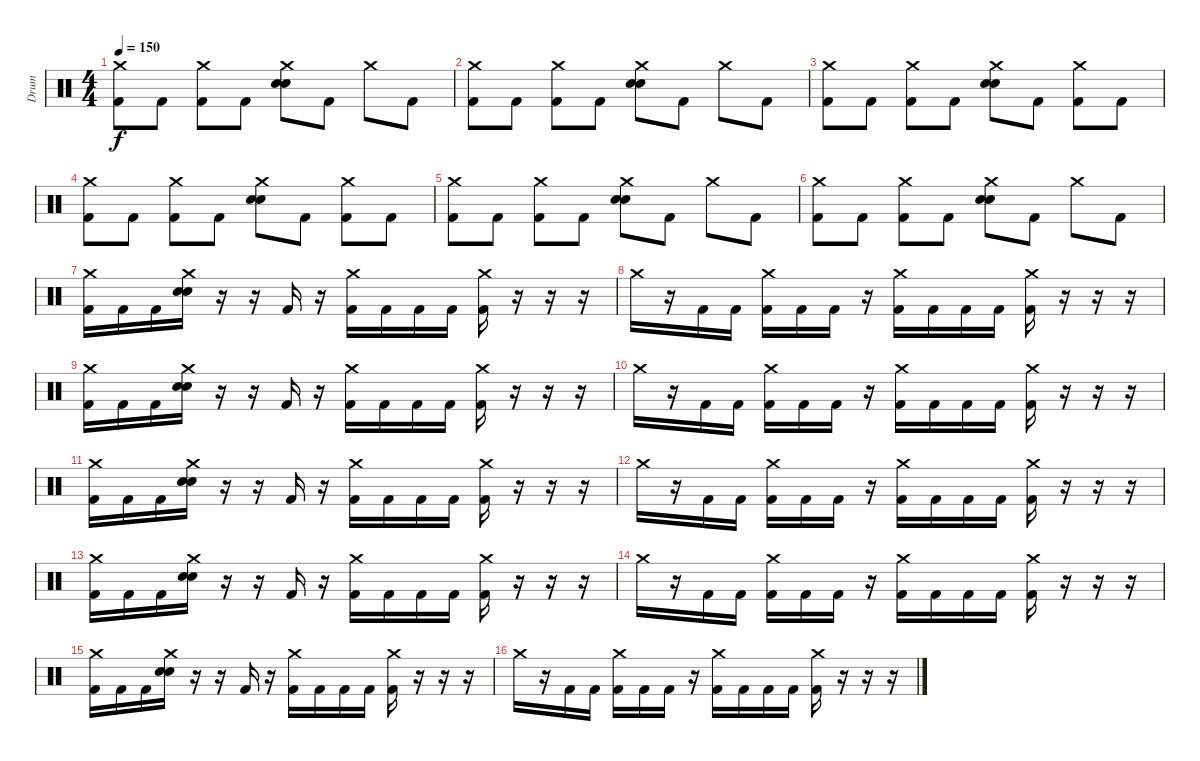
\track ("Drum" "Drum") {instrument percussion}
\staff {score}
\articulation defaults
\ts (4 4)
\tempo 150
\clef neutral
\ks c
("Crash medium (hit)" "Kick (hit) 2").8{dy f} "Kick (hit) 2".8 ("Crash medium (hit)" "Kick (hit) 2").8 "Kick (hit) 2".8 ("Crash medium (hit)" "Snare (hit) 2" "Electric Snare (hit)").8 "Kick (hit) 2".8 "Crash medium (hit)".8 "Kick (hit) 2".8 |
("Crash medium (hit)" "Kick (hit) 2").8 "Kick (hit) 2".8 ("Crash medium (hit)" "Kick (hit) 2").8 "Kick (hit) 2".8 ("Crash medium (hit)" "Snare (hit) 2" "Electric Snare (hit)").8 "Kick (hit) 2".8 "Crash medium (hit)".8 "Kick (hit) 2".8 |
("Crash medium (hit)" "Kick (hit) 2").8 "Kick (hit) 2".8 ("Crash medium (hit)" "Kick (hit) 2").8 "Kick (hit) 2".8 ("Crash medium (hit)" "Snare (hit) 2" "Electric Snare (hit)").8 "Kick (hit) 2".8 ("Crash medium (hit)" "Kick (hit) 2").8 "Kick (hit) 2".8 |
("Crash medium (hit)" "Kick (hit) 2").8 "Kick (hit) 2".8 ("Crash medium (hit)" "Kick (hit) 2").8 "Kick (hit) 2".8 ("Crash medium (hit)" "Snare (hit) 2" "Electric Snare (hit)").8 "Kick (hit) 2".8 ("Crash medium (hit)" "Kick (hit) 2").8 "Kick (hit) 2".8 |
("Crash medium (hit)" "Kick (hit) 2").8 "Kick (hit) 2".8 ("Crash medium (hit)" "Kick (hit) 2").8 "Kick (hit) 2".8 ("Crash medium (hit)" "Snare (hit) 2" "Electric Snare (hit)").8 "Kick (hit) 2".8 "Crash medium (hit)".8 "Kick (hit) 2".8 |
("Crash medium (hit)" "Kick (hit) 2").8 "Kick (hit) 2".8 ("Crash medium (hit)" "Kick (hit) 2").8 "Kick (hit) 2".8 ("Crash medium (hit)" "Snare (hit) 2" "Electric Snare (hit)").8 "Kick (hit) 2".8 "Crash medium (hit)".8 "Kick (hit) 2".8 |
("Crash medium (hit)" "Kick (hit) 2").16 "Kick (hit) 2".16 "Kick (hit) 2".16 ("Crash medium (hit)" "Snare (hit) 2" "Electric Snare (hit)").16 r.16 r.16 "Kick (hit) 2".16 r.16 ("Crash medium (hit)" "Kick (hit) 2").16 "Kick (hit) 2".16 "Kick (hit) 2".16 "Kick (hit) 2".16 ("Crash medium (hit)" "Kick (hit) 2").16 r.16 r.16 r.16 |
"Crash medium (hit)".16 r.16 "Kick (hit) 2".16 "Kick (hit) 2".16 ("Crash medium (hit)" "Kick (hit) 2").16 "Kick (hit) 2".16 "Kick (hit) 2".16 r.16 ("Crash medium (hit)" "Kick (hit) 2").16 "Kick (hit) 2".16 "Kick (hit) 2".16 "Kick (hit) 2".16 ("Crash medium (hit)" "Kick (hit) 2").16 r.16 r.16 r.16 |
("Crash medium (hit)" "Kick (hit) 2").16 "Kick (hit) 2".16 "Kick (hit) 2".16 ("Crash medium (hit)" "Snare (hit) 2" "Electric Snare (hit)").16 r.16 r.16 "Kick (hit) 2".16 r.16 ("Crash medium (hit)" "Kick (hit) 2").16 "Kick (hit) 2".16 "Kick (hit) 2".16 "Kick (hit) 2".16 ("Crash medium (hit)" "Kick (hit) 2").16 r.16 r.16 r.16 |
"Crash medium (hit)".16 r.16 "Kick (hit) 2".16 "Kick (hit) 2".16 ("Crash medium (hit)" "Kick (hit) 2").16 "Kick (hit) 2".16 "Kick (hit) 2".16 r.16 ("Crash medium (hit)" "Kick (hit) 2").16 "Kick (hit) 2".16 "Kick (hit) 2".16 "Kick (hit) 2".16 ("Crash medium (hit)" "Kick (hit) 2").16 r.16 r.16 r.16 |
("Crash medium (hit)" "Kick (hit) 2").16 "Kick (hit) 2".16 "Kick (hit) 2".16 ("Crash medium (hit)" "Snare (hit) 2" "Electric Snare (hit)").16 r.16 r.16 "Kick (hit) 2".16 r.16 ("Crash medium (hit)" "Kick (hit) 2").16 "Kick (hit) 2".16 "Kick (hit) 2".16 "Kick (hit) 2".16 ("Crash medium (hit)" "Kick (hit) 2").16 r.16 r.16 r.16 |
"Crash medium (hit)".16 r.16 "Kick (hit) 2".16 "Kick (hit) 2".16 ("Crash medium (hit)" "Kick (hit) 2").16 "Kick (hit) 2".16 "Kick (hit) 2".16 r.16 ("Crash medium (hit)" "Kick (hit) 2").16 "Kick (hit) 2".16 "Kick (hit) 2".16 "Kick (hit) 2".16 ("Crash medium (hit)" "Kick (hit) 2").16 r.16 r.16 r.16 |
("Crash medium (hit)" "Kick (hit) 2").16 "Kick (hit) 2".16 "Kick (hit) 2".16 ("Crash medium (hit)" "Snare (hit) 2" "Electric Snare (hit)").16 r.16 r.16 "Kick (hit) 2".16 r.16 ("Crash medium (hit)" "Kick (hit) 2").16 "Kick (hit) 2".16 "Kick (hit) 2".16 "Kick (hit) 2".16 ("Crash medium (hit)" "Kick (hit) 2").16 r.16 r.16 r.16 |
"Crash medium (hit)".16 r.16 "Kick (hit) 2".16 "Kick (hit) 2".16 ("Crash medium (hit)" "Kick (hit) 2").16 "Kick (hit) 2".16 "Kick (hit) 2".16 r.16 ("Crash medium (hit)" "Kick (hit) 2").16 "Kick (hit) 2".16 "Kick (hit) 2".16 "Kick (hit) 2".16 ("Crash medium (hit)" "Kick (hit) 2").16 r.16 r.16 r.16 |
("Crash medium (hit)" "Kick (hit) 2").16 "Kick (hit) 2".16 "Kick (hit) 2".16 ("Crash medium (hit)" "Snare (hit) 2" "Electric Snare (hit)").16 r.16 r.16 "Kick (hit) 2".16 r.16 ("Crash medium (hit)" "Kick (hit) 2").16 "Kick (hit) 2".16 "Kick (hit) 2".16 "Kick (hit) 2".16 ("Crash medium (hit)" "Kick (hit) 2").16 r.16 r.16 r.16 |
"Crash medium (hit)".16 r.16 "Kick (hit) 2".16 "Kick (hit) 2".16 ("Crash medium (hit)" "Kick (hit) 2").16 "Kick (hit) 2".16 "Kick (hit) 2".16 r.16 ("Crash medium (hit)" "Kick (hit) 2").16 "Kick (hit) 2".16 "Kick (hit) 2".16 "Kick (hit) 2".16 ("Crash medium (hit)" "Kick (hit) 2").16 r.16 r.16 r.16
